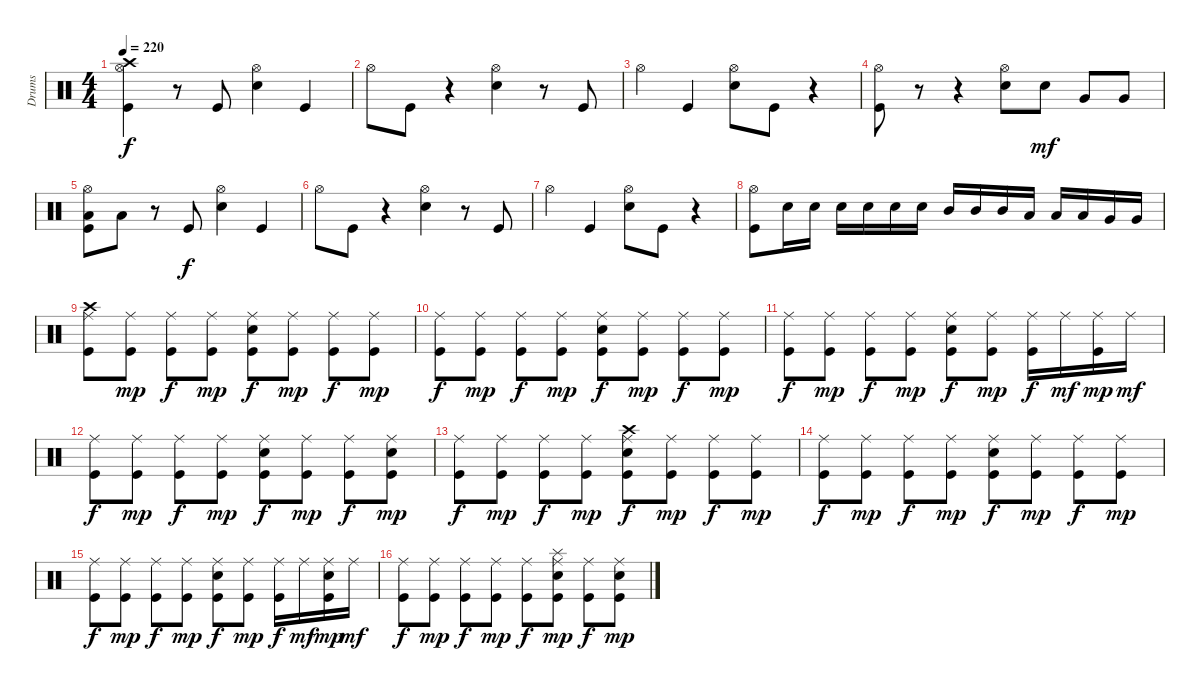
\track ("Drums" "Drums") {instrument percussion}
\staff {score}
\articulation defaults
\ts (4 4)
\tempo 220
\clef neutral
\ks c
("Crash high (hit)" "Hi-Hat (open)" "Kick (hit)").4{dy f} r.8 "Kick (hit)".8 ("Hi-Hat (open)" "Electric Snare (hit)").4 "Kick (hit)".4 |
"Hi-Hat (open)".8 "Kick (hit)".8 r.4 ("Hi-Hat (open)" "Electric Snare (hit)").4 r.8 "Kick (hit)".8 |
"Hi-Hat (open)".4 "Kick (hit)".4 ("Hi-Hat (open)" "Electric Snare (hit)").8 "Kick (hit)".8 r.4 |
("Hi-Hat (open)" "Kick (hit)").8 r.8 r.4 ("Hi-Hat (open)" "Electric Snare (hit)").8 "Electric Snare (hit)".8{dy mf} "Very Low Tom (hit)".8 "Very Low Tom (hit)".8 |
("Hi-Hat (open)" "Low Floor Tom (hit)" "Kick (hit)").8 "Low Floor Tom (hit)".8 r.8 "Kick (hit)".8{dy f} ("Hi-Hat (open)" "Electric Snare (hit)").4 "Kick (hit)".4 |
"Hi-Hat (open)".8 "Kick (hit)".8 r.4 ("Hi-Hat (open)" "Electric Snare (hit)").4 r.8 "Kick (hit)".8 |
"Hi-Hat (open)".4 "Kick (hit)".4 ("Hi-Hat (open)" "Electric Snare (hit)").8 "Kick (hit)".8 r.4 |
("Hi-Hat (open)" "Kick (hit)").8 "Electric Snare (hit)".16 "Electric Snare (hit)".16 "Electric Snare (hit)".16 "Electric Snare (hit)".16 "Electric Snare (hit)".16 "Electric Snare (hit)".16 "Mid Tom (hit)".16 "Mid Tom (hit)".16 "Mid Tom (hit)".16 "Low Tom (hit)".16 "Low Tom (hit)".16 "Low Tom (hit)".16 "Very Low Tom (hit)".16 "Very Low Tom (hit)".16 |
("Crash high (hit)" "Ride (middle)" "Kick (hit)").8 ("Ride (middle)" "Kick (hit)").8{dy mp} ("Ride (middle)" "Kick (hit)").8{dy f} ("Ride (middle)" "Kick (hit)").8{dy mp} ("Ride (middle)" "Electric Snare (hit)" "Kick (hit)").8{dy f} ("Ride (middle)" "Kick (hit)").8{dy mp} ("Ride (middle)" "Kick (hit)").8{dy f} ("Ride (middle)" "Kick (hit)").8{dy mp} |
("Ride (middle)" "Kick (hit)").8{dy f} ("Ride (middle)" "Kick (hit)").8{dy mp} ("Ride (middle)" "Kick (hit)").8{dy f} ("Ride (middle)" "Kick (hit)").8{dy mp} ("Ride (middle)" "Electric Snare (hit)" "Kick (hit)").8{dy f} ("Ride (middle)" "Kick (hit)").8{dy mp} ("Ride (middle)" "Kick (hit)").8{dy f} ("Ride (middle)" "Kick (hit)").8{dy mp} |
("Ride (middle)" "Kick (hit)").8{dy f} ("Ride (middle)" "Kick (hit)").8{dy mp} ("Ride (middle)" "Kick (hit)").8{dy f} ("Ride (middle)" "Kick (hit)").8{dy mp} ("Ride (middle)" "Electric Snare (hit)" "Kick (hit)").8{dy f} ("Ride (middle)" "Kick (hit)").8{dy mp} ("Ride (middle)" "Kick (hit)").16{dy f} "Ride (middle)".16{dy mf} ("Ride (middle)" "Kick (hit)").16{dy mp} "Ride (middle)".16{dy mf} |
("Ride (middle)" "Kick (hit)").8{dy f} ("Ride (middle)" "Kick (hit)").8{dy mp} ("Ride (middle)" "Kick (hit)").8{dy f} ("Ride (middle)" "Kick (hit)").8{dy mp} ("Ride (middle)" "Electric Snare (hit)" "Kick (hit)").8{dy f} ("Ride (middle)" "Kick (hit)").8{dy mp} ("Ride (middle)" "Kick (hit)").8{dy f} ("Ride (middle)" "Electric Snare (hit)" "Kick (hit)").8{dy mp} |
("Ride (middle)" "Kick (hit)").8{dy f} ("Ride (middle)" "Kick (hit)").8{dy mp} ("Ride (middle)" "Kick (hit)").8{dy f} ("Ride (middle)" "Kick (hit)").8{dy mp} ("Crash high (hit)" "Ride (middle)" "Electric Snare (hit)" "Kick (hit)").8{dy f} ("Ride (middle)" "Kick (hit)").8{dy mp} ("Ride (middle)" "Kick (hit)").8{dy f} ("Ride (middle)" "Kick (hit)").8{dy mp} |
("Ride (middle)" "Kick (hit)").8{dy f} ("Ride (middle)" "Kick (hit)").8{dy mp} ("Ride (middle)" "Kick (hit)").8{dy f} ("Ride (middle)" "Kick (hit)").8{dy mp} ("Ride (middle)" "Electric Snare (hit)" "Kick (hit)").8{dy f} ("Ride (middle)" "Kick (hit)").8{dy mp} ("Ride (middle)" "Kick (hit)").8{dy f} ("Ride (middle)" "Kick (hit)").8{dy mp} |
("Ride (middle)" "Kick (hit)").8{dy f} ("Ride (middle)" "Kick (hit)").8{dy mp} ("Ride (middle)" "Kick (hit)").8{dy f} ("Ride (middle)" "Kick (hit)").8{dy mp} ("Ride (middle)" "Electric Snare (hit)" "Kick (hit)").8{dy f} ("Ride (middle)" "Kick (hit)").8{dy mp} ("Ride (middle)" "Kick (hit)").16{dy f} "Ride (middle)".16{dy mf} ("Ride (middle)" "Electric Snare (hit)" "Kick (hit)").16{dy mp} "Ride (middle)".16{dy mf} |
("Ride (middle)" "Kick (hit)").8{dy f} ("Ride (middle)" "Kick (hit)").8{dy mp} ("Ride (middle)" "Kick (hit)").8{dy f} ("Ride (middle)" "Kick (hit)").8{dy mp} ("Ride (middle)" "Kick (hit)").8{dy f} ("Splash (hit)" "Ride (middle)" "Electric Snare (hit)" "Kick (hit)").8{dy mp} ("Ride (middle)" "Kick (hit)").8{dy f} ("Ride (middle)" "Electric Snare (hit)" "Kick (hit)").8{dy mp}
